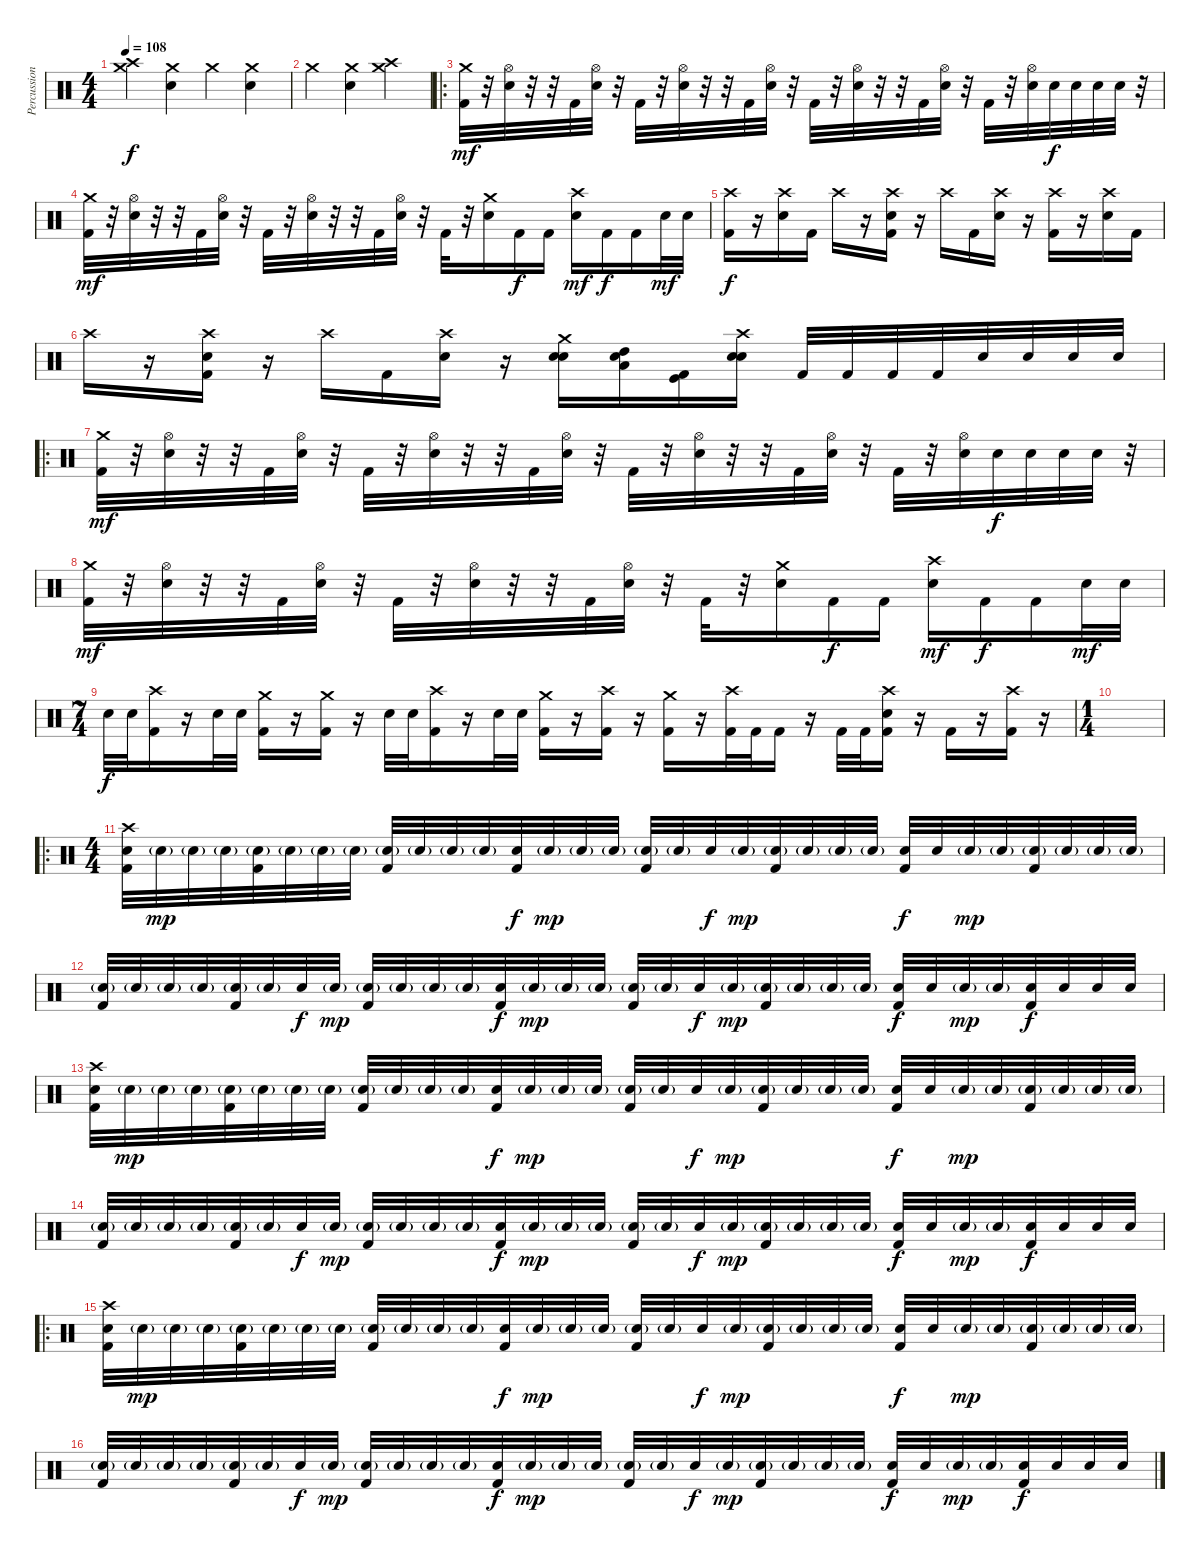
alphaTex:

\track ("Percussion" "Percussion") {instrument percussion}
\staff {score}
\articulation defaults
\ts (4 4)
\tempo 108
\clef neutral
\ks c
("Crash medium (hit)" "Crash high (hit)").4{dy f} ("Crash medium (hit)" "Electric Snare (hit)").4 "Crash medium (hit)".4 ("Crash medium (hit)" "Electric Snare (hit)").4 |
"Crash medium (hit)".4 ("Crash medium (hit)" "Electric Snare (hit)").4 ("Crash high (hit)" "Crash medium (hit)").4 |
\ro
("Crash medium (hit)" "Kick (hit) 2").32{dy mf} r.32 ("Hi-Hat (open)" "Electric Snare (hit)").32 r.32 r.32 "Kick (hit) 2".32 ("Hi-Hat (open)" "Electric Snare (hit)").32 r.32 "Kick (hit) 2".32 r.32 ("Hi-Hat (open)" "Electric Snare (hit)").32 r.32 r.32 "Kick (hit) 2".32 ("Hi-Hat (open)" "Electric Snare (hit)").32 r.32 "Kick (hit) 2".32 r.32 ("Hi-Hat (open)" "Electric Snare (hit)").32 r.32 r.32 "Kick (hit) 2".32 ("Hi-Hat (open)" "Electric Snare (hit)").32 r.32 "Kick (hit) 2".32 r.32 ("Hi-Hat (open)" "Electric Snare (hit)").32 "Electric Snare (hit)".32{dy f} "Electric Snare (hit)".32 "Electric Snare (hit)".32 "Electric Snare (hit)".32 r.32 |
("Crash medium (hit)" "Kick (hit) 2").32{dy mf} r.32 ("Hi-Hat (open)" "Electric Snare (hit)").32 r.32 r.32 "Kick (hit) 2".32 ("Hi-Hat (open)" "Electric Snare (hit)").32 r.32 "Kick (hit) 2".32 r.32 ("Hi-Hat (open)" "Electric Snare (hit)").32 r.32 r.32 "Kick (hit) 2".32 ("Hi-Hat (open)" "Electric Snare (hit)").32 r.32 "Kick (hit) 2".32 r.32 ("Crash medium (hit)" "Electric Snare (hit)").16 "Kick (hit) 2".16{dy f} "Kick (hit) 2".16 ("Crash high (hit)" "Electric Snare (hit)").16{dy mf} "Kick (hit) 2".16{dy f} "Kick (hit) 2".16 "Electric Snare (hit)".32{dy mf} "Electric Snare (hit)".32 |
("Crash high (hit)" "Kick (hit) 2").16{dy f} r.16 ("Crash high (hit)" "Electric Snare (hit)").16 "Kick (hit) 2".16 "Crash high (hit)".16 r.16 ("Crash high (hit)" "Electric Snare (hit)" "Kick (hit) 2").16 r.16 "Crash high (hit)".16 "Kick (hit) 2".16 ("Crash high (hit)" "Electric Snare (hit)").16 r.16 ("Crash high (hit)" "Kick (hit) 2").16 r.16 ("Crash high (hit)" "Electric Snare (hit)").16 "Kick (hit) 2".16 |
"Crash high (hit)".16 r.16 ("Crash high (hit)" "Electric Snare (hit)" "Kick (hit) 2").16 r.16 "Crash high (hit)".16 "Kick (hit) 2".16 ("Crash high (hit)" "Electric Snare (hit)").16 r.16 ("Crash medium (hit)" "Snare (hit) 2" "Electric Snare (hit)").16 ("Snare (hit)" "Low Tom (hit)" "High Tom (hit)").16 ("Kick (hit)" "Kick (hit) 2").16 ("Crash high (hit)" "Snare (hit) 2" "Electric Snare (hit)").16 "Kick (hit) 2".32 "Kick (hit) 2".32 "Kick (hit) 2".32 "Kick (hit) 2".32 "Electric Snare (hit)".32 "Electric Snare (hit)".32 "Electric Snare (hit)".32 "Electric Snare (hit)".32 |
\ro
("Crash medium (hit)" "Kick (hit) 2").32{dy mf} r.32 ("Hi-Hat (open)" "Electric Snare (hit)").32 r.32 r.32 "Kick (hit) 2".32 ("Hi-Hat (open)" "Electric Snare (hit)").32 r.32 "Kick (hit) 2".32 r.32 ("Hi-Hat (open)" "Electric Snare (hit)").32 r.32 r.32 "Kick (hit) 2".32 ("Hi-Hat (open)" "Electric Snare (hit)").32 r.32 "Kick (hit) 2".32 r.32 ("Hi-Hat (open)" "Electric Snare (hit)").32 r.32 r.32 "Kick (hit) 2".32 ("Hi-Hat (open)" "Electric Snare (hit)").32 r.32 "Kick (hit) 2".32 r.32 ("Hi-Hat (open)" "Electric Snare (hit)").32 "Electric Snare (hit)".32{dy f} "Electric Snare (hit)".32 "Electric Snare (hit)".32 "Electric Snare (hit)".32 r.32 |
("Crash medium (hit)" "Kick (hit) 2").32{dy mf} r.32 ("Hi-Hat (open)" "Electric Snare (hit)").32 r.32 r.32 "Kick (hit) 2".32 ("Hi-Hat (open)" "Electric Snare (hit)").32 r.32 "Kick (hit) 2".32 r.32 ("Hi-Hat (open)" "Electric Snare (hit)").32 r.32 r.32 "Kick (hit) 2".32 ("Hi-Hat (open)" "Electric Snare (hit)").32 r.32 "Kick (hit) 2".32 r.32 ("Crash medium (hit)" "Electric Snare (hit)").16 "Kick (hit) 2".16{dy f} "Kick (hit) 2".16 ("Crash high (hit)" "Electric Snare (hit)").16{dy mf} "Kick (hit) 2".16{dy f} "Kick (hit) 2".16 "Electric Snare (hit)".32{dy mf} "Electric Snare (hit)".32 |
\ts (7 4)
"Electric Snare (hit)".32{dy f} "Electric Snare (hit)".32 ("Crash high (hit)" "Kick (hit) 2").16 r.16 "Electric Snare (hit)".32 "Electric Snare (hit)".32 ("Crash medium (hit)" "Kick (hit) 2").16 r.16 ("Crash medium (hit)" "Kick (hit) 2").16 r.16 "Electric Snare (hit)".32 "Electric Snare (hit)".32 ("Crash high (hit)" "Kick (hit) 2").16 r.16 "Electric Snare (hit)".32 "Electric Snare (hit)".32 ("Crash medium (hit)" "Kick (hit) 2").16 r.16 ("Crash high (hit)" "Kick (hit) 2").16 r.16 ("Crash medium (hit)" "Kick (hit) 2").16 r.16 ("Crash high (hit)" "Kick (hit) 2").32 "Kick (hit) 2".32 "Kick (hit) 2".16 r.16 "Kick (hit) 2".32 "Kick (hit) 2".32 ("Crash high (hit)" "Electric Snare (hit)" "Kick (hit) 2").16 r.16 "Kick (hit) 2".16 r.16 ("Crash high (hit)" "Kick (hit) 2").16 r.16 |
\ts (1 4)
|
\ro
\ts (4 4)
("Crash high (hit)" "Electric Snare (hit)" "Kick (hit) 2").32 "Electric Snare (hit)"{g}.32{dy mp} "Electric Snare (hit)"{g}.32 "Electric Snare (hit)"{g}.32 ("Electric Snare (hit)"{g} "Kick (hit) 2").32 "Electric Snare (hit)"{g}.32 "Electric Snare (hit)"{g}.32 "Electric Snare (hit)"{g}.32 ("Electric Snare (hit)"{g} "Kick (hit) 2").32 "Electric Snare (hit)"{g}.32 "Electric Snare (hit)"{g}.32 "Electric Snare (hit)"{g}.32 ("Electric Snare (hit)" "Kick (hit) 2").32{dy f} "Electric Snare (hit)"{g}.32{dy mp} "Electric Snare (hit)"{g}.32 "Electric Snare (hit)"{g}.32 ("Electric Snare (hit)"{g} "Kick (hit) 2").32 "Electric Snare (hit)"{g}.32 "Electric Snare (hit)".32{dy f} "Electric Snare (hit)"{g}.32{dy mp} ("Electric Snare (hit)"{g} "Kick (hit) 2").32 "Electric Snare (hit)"{g}.32 "Electric Snare (hit)"{g}.32 "Electric Snare (hit)"{g}.32 ("Electric Snare (hit)" "Kick (hit) 2").32{dy f} "Electric Snare (hit)".32 "Electric Snare (hit)"{g}.32{dy mp} "Electric Snare (hit)"{g}.32 ("Electric Snare (hit)"{g} "Kick (hit) 2").32 "Electric Snare (hit)"{g}.32 "Electric Snare (hit)"{g}.32 "Electric Snare (hit)"{g}.32 |
("Electric Snare (hit)"{g} "Kick (hit) 2").32 "Electric Snare (hit)"{g}.32 "Electric Snare (hit)"{g}.32 "Electric Snare (hit)"{g}.32 ("Electric Snare (hit)"{g} "Kick (hit) 2").32 "Electric Snare (hit)"{g}.32 "Electric Snare (hit)".32{dy f} "Electric Snare (hit)"{g}.32{dy mp} ("Electric Snare (hit)"{g} "Kick (hit) 2").32 "Electric Snare (hit)"{g}.32 "Electric Snare (hit)"{g}.32 "Electric Snare (hit)"{g}.32 ("Electric Snare (hit)" "Kick (hit) 2").32{dy f} "Electric Snare (hit)"{g}.32{dy mp} "Electric Snare (hit)"{g}.32 "Electric Snare (hit)"{g}.32 ("Electric Snare (hit)"{g} "Kick (hit) 2").32 "Electric Snare (hit)"{g}.32 "Electric Snare (hit)".32{dy f} "Electric Snare (hit)"{g}.32{dy mp} ("Electric Snare (hit)"{g} "Kick (hit) 2").32 "Electric Snare (hit)"{g}.32 "Electric Snare (hit)"{g}.32 "Electric Snare (hit)"{g}.32 ("Electric Snare (hit)" "Kick (hit) 2").32{dy f} "Electric Snare (hit)".32 "Electric Snare (hit)"{g}.32{dy mp} "Electric Snare (hit)"{g}.32 ("Electric Snare (hit)" "Kick (hit) 2").32{dy f} "Electric Snare (hit)".32 "Electric Snare (hit)".32 "Electric Snare (hit)".32 |
("Crash high (hit)" "Electric Snare (hit)" "Kick (hit) 2").32 "Electric Snare (hit)"{g}.32{dy mp} "Electric Snare (hit)"{g}.32 "Electric Snare (hit)"{g}.32 ("Electric Snare (hit)"{g} "Kick (hit) 2").32 "Electric Snare (hit)"{g}.32 "Electric Snare (hit)"{g}.32 "Electric Snare (hit)"{g}.32 ("Electric Snare (hit)"{g} "Kick (hit) 2").32 "Electric Snare (hit)"{g}.32 "Electric Snare (hit)"{g}.32 "Electric Snare (hit)"{g}.32 ("Electric Snare (hit)" "Kick (hit) 2").32{dy f} "Electric Snare (hit)"{g}.32{dy mp} "Electric Snare (hit)"{g}.32 "Electric Snare (hit)"{g}.32 ("Electric Snare (hit)"{g} "Kick (hit) 2").32 "Electric Snare (hit)"{g}.32 "Electric Snare (hit)".32{dy f} "Electric Snare (hit)"{g}.32{dy mp} ("Electric Snare (hit)"{g} "Kick (hit) 2").32 "Electric Snare (hit)"{g}.32 "Electric Snare (hit)"{g}.32 "Electric Snare (hit)"{g}.32 ("Electric Snare (hit)" "Kick (hit) 2").32{dy f} "Electric Snare (hit)".32 "Electric Snare (hit)"{g}.32{dy mp} "Electric Snare (hit)"{g}.32 ("Electric Snare (hit)"{g} "Kick (hit) 2").32 "Electric Snare (hit)"{g}.32 "Electric Snare (hit)"{g}.32 "Electric Snare (hit)"{g}.32 |
("Electric Snare (hit)"{g} "Kick (hit) 2").32 "Electric Snare (hit)"{g}.32 "Electric Snare (hit)"{g}.32 "Electric Snare (hit)"{g}.32 ("Electric Snare (hit)"{g} "Kick (hit) 2").32 "Electric Snare (hit)"{g}.32 "Electric Snare (hit)".32{dy f} "Electric Snare (hit)"{g}.32{dy mp} ("Electric Snare (hit)"{g} "Kick (hit) 2").32 "Electric Snare (hit)"{g}.32 "Electric Snare (hit)"{g}.32 "Electric Snare (hit)"{g}.32 ("Electric Snare (hit)" "Kick (hit) 2").32{dy f} "Electric Snare (hit)"{g}.32{dy mp} "Electric Snare (hit)"{g}.32 "Electric Snare (hit)"{g}.32 ("Electric Snare (hit)"{g} "Kick (hit) 2").32 "Electric Snare (hit)"{g}.32 "Electric Snare (hit)".32{dy f} "Electric Snare (hit)"{g}.32{dy mp} ("Electric Snare (hit)"{g} "Kick (hit) 2").32 "Electric Snare (hit)"{g}.32 "Electric Snare (hit)"{g}.32 "Electric Snare (hit)"{g}.32 ("Electric Snare (hit)" "Kick (hit) 2").32{dy f} "Electric Snare (hit)".32 "Electric Snare (hit)"{g}.32{dy mp} "Electric Snare (hit)"{g}.32 ("Electric Snare (hit)" "Kick (hit) 2").32{dy f} "Electric Snare (hit)".32 "Electric Snare (hit)".32 "Electric Snare (hit)".32 |
\ro
("Crash high (hit)" "Electric Snare (hit)" "Kick (hit) 2").32 "Electric Snare (hit)"{g}.32{dy mp} "Electric Snare (hit)"{g}.32 "Electric Snare (hit)"{g}.32 ("Electric Snare (hit)"{g} "Kick (hit) 2").32 "Electric Snare (hit)"{g}.32 "Electric Snare (hit)"{g}.32 "Electric Snare (hit)"{g}.32 ("Electric Snare (hit)"{g} "Kick (hit) 2").32 "Electric Snare (hit)"{g}.32 "Electric Snare (hit)"{g}.32 "Electric Snare (hit)"{g}.32 ("Electric Snare (hit)" "Kick (hit) 2").32{dy f} "Electric Snare (hit)"{g}.32{dy mp} "Electric Snare (hit)"{g}.32 "Electric Snare (hit)"{g}.32 ("Electric Snare (hit)"{g} "Kick (hit) 2").32 "Electric Snare (hit)"{g}.32 "Electric Snare (hit)".32{dy f} "Electric Snare (hit)"{g}.32{dy mp} ("Electric Snare (hit)"{g} "Kick (hit) 2").32 "Electric Snare (hit)"{g}.32 "Electric Snare (hit)"{g}.32 "Electric Snare (hit)"{g}.32 ("Electric Snare (hit)" "Kick (hit) 2").32{dy f} "Electric Snare (hit)".32 "Electric Snare (hit)"{g}.32{dy mp} "Electric Snare (hit)"{g}.32 ("Electric Snare (hit)"{g} "Kick (hit) 2").32 "Electric Snare (hit)"{g}.32 "Electric Snare (hit)"{g}.32 "Electric Snare (hit)"{g}.32 |
("Electric Snare (hit)"{g} "Kick (hit) 2").32 "Electric Snare (hit)"{g}.32 "Electric Snare (hit)"{g}.32 "Electric Snare (hit)"{g}.32 ("Electric Snare (hit)"{g} "Kick (hit) 2").32 "Electric Snare (hit)"{g}.32 "Electric Snare (hit)".32{dy f} "Electric Snare (hit)"{g}.32{dy mp} ("Electric Snare (hit)"{g} "Kick (hit) 2").32 "Electric Snare (hit)"{g}.32 "Electric Snare (hit)"{g}.32 "Electric Snare (hit)"{g}.32 ("Electric Snare (hit)" "Kick (hit) 2").32{dy f} "Electric Snare (hit)"{g}.32{dy mp} "Electric Snare (hit)"{g}.32 "Electric Snare (hit)"{g}.32 ("Electric Snare (hit)"{g} "Kick (hit) 2").32 "Electric Snare (hit)"{g}.32 "Electric Snare (hit)".32{dy f} "Electric Snare (hit)"{g}.32{dy mp} ("Electric Snare (hit)"{g} "Kick (hit) 2").32 "Electric Snare (hit)"{g}.32 "Electric Snare (hit)"{g}.32 "Electric Snare (hit)"{g}.32 ("Electric Snare (hit)" "Kick (hit) 2").32{dy f} "Electric Snare (hit)".32 "Electric Snare (hit)"{g}.32{dy mp} "Electric Snare (hit)"{g}.32 ("Electric Snare (hit)" "Kick (hit) 2").32{dy f} "Electric Snare (hit)".32 "Electric Snare (hit)".32 "Electric Snare (hit)".32
